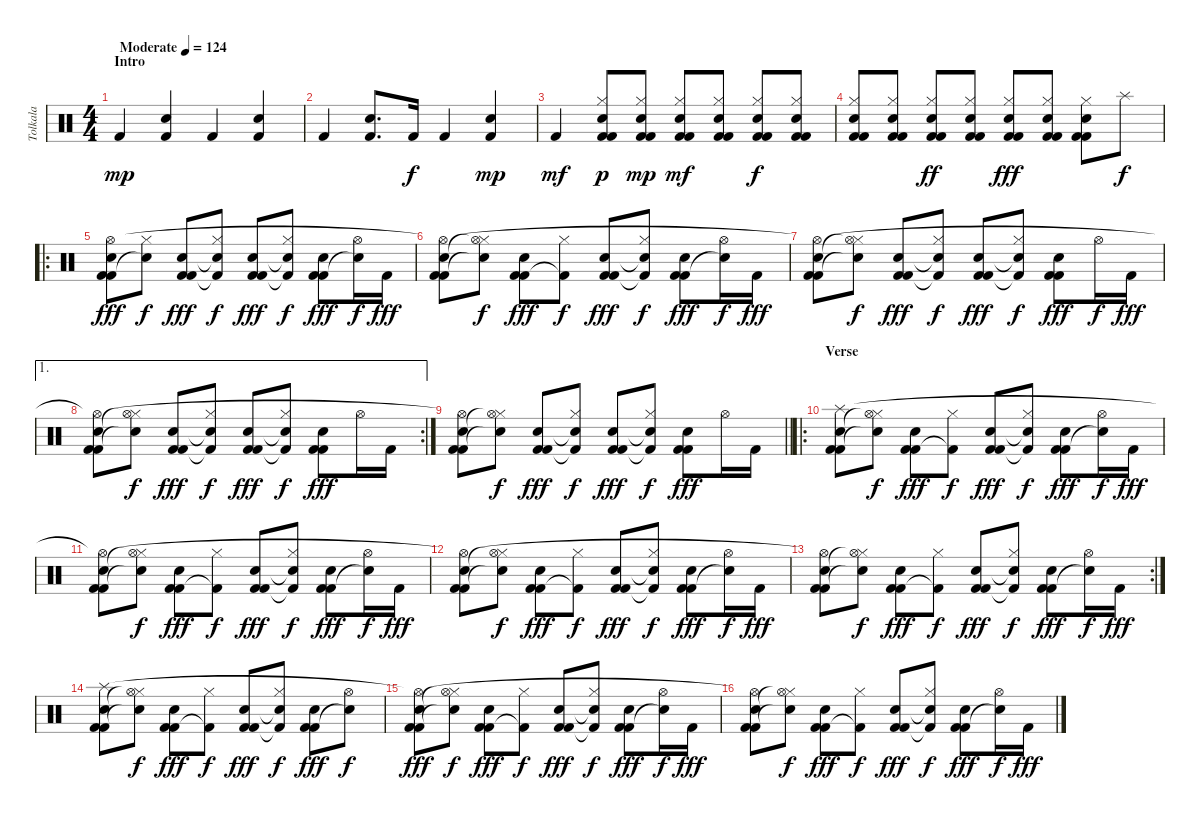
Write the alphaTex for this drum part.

\track ("Tolkala" "Tolkala") {instrument percussion}
\staff {score}
\articulation defaults
\ts (4 4)
\section ("" "Intro")
\tempo (124 "Moderate")
\clef neutral
\ks c "Kick (hit) 2".4{dy mp volume 10}
("Kick (hit) 2" "Electric Snare (hit)").4 "Kick (hit) 2".4 ("Kick (hit) 2" "Electric Snare (hit)").4 |
"Kick (hit) 2".4 ("Kick (hit) 2" "Electric Snare (hit)").8{d} "Kick (hit) 2".16{dy f} "Kick (hit) 2".4 ("Kick (hit) 2" "Electric Snare (hit)").4{dy mp} |
"Kick (hit) 2".4{dy mf} ("Kick (hit) 2" "Kick (hit) 2" "Hi-Hat (closed)" "Snare (hit) 2").8{dy p} ("Kick (hit) 2" "Kick (hit) 2" "Hi-Hat (closed)" "Snare (hit) 2").8{dy mp} ("Kick (hit) 2" "Kick (hit) 2" "Hi-Hat (closed)" "Snare (hit) 2").8{dy mf} ("Kick (hit) 2" "Kick (hit) 2" "Hi-Hat (closed)" "Snare (hit) 2").8 ("Kick (hit) 2" "Kick (hit) 2" "Hi-Hat (closed)" "Snare (hit) 2").8{dy f} ("Kick (hit) 2" "Kick (hit) 2" "Hi-Hat (closed)" "Snare (hit) 2").8 |
("Kick (hit) 2" "Kick (hit) 2" "Hi-Hat (closed)" "Snare (hit) 2").8 ("Kick (hit) 2" "Kick (hit) 2" "Hi-Hat (closed)" "Snare (hit) 2").8 ("Kick (hit) 2" "Kick (hit) 2" "Hi-Hat (closed)" "Snare (hit) 2").8{dy ff} ("Kick (hit) 2" "Kick (hit) 2" "Hi-Hat (closed)" "Snare (hit) 2").8 ("Kick (hit) 2" "Kick (hit) 2" "Hi-Hat (closed)" "Snare (hit) 2").8{dy fff} ("Kick (hit) 2" "Kick (hit) 2" "Hi-Hat (closed)" "Snare (hit) 2").8 ("Kick (hit) 2" "Kick (hit) 2" "Hi-Hat (closed)" "Snare (hit) 2").8 "Splash (hit)".8{dy f} |
\ro
("Kick (hit) 2" "Kick (hit) 2" "Snare (hit) 2" "Hi-Hat (open)").8{dy fff volume 16} ("Hi-Hat (closed)" "Snare (hit) 2"{t}).8{dy f} ("Kick (hit) 2" "Kick (hit) 2" "Snare (hit) 2").8{dy fff} ("Kick (hit) 2"{t} "Hi-Hat (closed)" "Snare (hit) 2"{t}).8{dy f} ("Kick (hit) 2" "Kick (hit) 2" "Snare (hit) 2").8{dy fff} ("Kick (hit) 2"{t} "Hi-Hat (closed)" "Snare (hit) 2"{t}).8{dy f} ("Kick (hit) 2" "Kick (hit) 2" "Snare (hit) 2").8{dy fff} ("Snare (hit) 2"{t} "Hi-Hat (open)").16{dy f} "Kick (hit) 2".16{dy fff} |
("Kick (hit) 2" "Kick (hit) 2" "Snare (hit) 2" "Hi-Hat (open)"{t}).8 ("Hi-Hat (closed)" "Snare (hit) 2"{t} "Hi-Hat (open)"{t}).8{dy f} ("Kick (hit) 2" "Kick (hit) 2" "Snare (hit) 2").8{dy fff} ("Kick (hit) 2"{t} "Hi-Hat (closed)").8{dy f} ("Kick (hit) 2" "Kick (hit) 2" "Snare (hit) 2").8{dy fff} ("Kick (hit) 2"{t} "Hi-Hat (closed)" "Snare (hit) 2"{t}).8{dy f} ("Kick (hit) 2" "Kick (hit) 2" "Snare (hit) 2").8{dy fff} ("Snare (hit) 2"{t} "Hi-Hat (open)").16{dy f} "Kick (hit) 2".16{dy fff} |
("Kick (hit) 2" "Kick (hit) 2" "Snare (hit) 2" "Hi-Hat (open)"{t}).8 ("Hi-Hat (closed)" "Snare (hit) 2"{t} "Hi-Hat (open)"{t}).8{dy f} ("Kick (hit) 2" "Kick (hit) 2" "Snare (hit) 2").8{dy fff} ("Kick (hit) 2"{t} "Hi-Hat (closed)" "Snare (hit) 2"{t}).8{dy f} ("Kick (hit) 2" "Kick (hit) 2" "Snare (hit) 2").8{dy fff} ("Kick (hit) 2"{t} "Hi-Hat (closed)" "Snare (hit) 2"{t}).8{dy f} ("Kick (hit) 2" "Kick (hit) 2" "Snare (hit) 2").8{dy fff} "Hi-Hat (open)".16{dy f} "Kick (hit) 2".16{dy fff} |
\ae 1
\rc 2
("Kick (hit) 2" "Kick (hit) 2" "Snare (hit) 2" "Hi-Hat (open)"{t}).8 ("Hi-Hat (closed)" "Snare (hit) 2"{t} "Hi-Hat (open)"{t}).8{dy f} ("Kick (hit) 2" "Kick (hit) 2" "Snare (hit) 2").8{dy fff} ("Kick (hit) 2"{t} "Hi-Hat (closed)" "Snare (hit) 2"{t}).8{dy f} ("Kick (hit) 2" "Kick (hit) 2" "Snare (hit) 2").8{dy fff} ("Kick (hit) 2"{t} "Hi-Hat (closed)" "Snare (hit) 2"{t}).8{dy f} ("Kick (hit) 2" "Kick (hit) 2" "Snare (hit) 2").8{dy fff} "Hi-Hat (open)".16 "Kick (hit) 2".16 |
\barLineRight lightlight
("Kick (hit) 2" "Kick (hit) 2" "Snare (hit) 2" "Hi-Hat (open)"{t}).8 ("Hi-Hat (closed)" "Snare (hit) 2"{t} "Hi-Hat (open)"{t}).8{dy f} ("Kick (hit) 2" "Kick (hit) 2" "Snare (hit) 2").8{dy fff} ("Kick (hit) 2"{t} "Hi-Hat (closed)" "Snare (hit) 2"{t}).8{dy f} ("Kick (hit) 2" "Kick (hit) 2" "Snare (hit) 2").8{dy fff} ("Kick (hit) 2"{t} "Hi-Hat (closed)" "Snare (hit) 2"{t}).8{dy f} ("Kick (hit) 2" "Kick (hit) 2" "Snare (hit) 2").8{dy fff} "Hi-Hat (open)".16 "Kick (hit) 2".16 |
\ro
\section ("" "Verse")
("Kick (hit) 2" "Kick (hit) 2" "Snare (hit) 2" "Splash (hit)").8 ("Hi-Hat (closed)" "Snare (hit) 2"{t} "Hi-Hat (open)"{t}).8{dy f} ("Kick (hit) 2" "Kick (hit) 2" "Snare (hit) 2").8{dy fff} ("Kick (hit) 2"{t} "Hi-Hat (closed)").8{dy f} ("Kick (hit) 2" "Kick (hit) 2" "Snare (hit) 2").8{dy fff} ("Kick (hit) 2"{t} "Hi-Hat (closed)" "Snare (hit) 2"{t}).8{dy f} ("Kick (hit) 2" "Kick (hit) 2" "Snare (hit) 2").8{dy fff} ("Snare (hit) 2"{t} "Hi-Hat (open)").16{dy f} "Kick (hit) 2".16{dy fff} |
("Kick (hit) 2" "Kick (hit) 2" "Snare (hit) 2" "Hi-Hat (open)"{t}).8 ("Hi-Hat (closed)" "Snare (hit) 2"{t} "Hi-Hat (open)"{t}).8{dy f} ("Kick (hit) 2" "Kick (hit) 2" "Snare (hit) 2").8{dy fff} ("Kick (hit) 2"{t} "Hi-Hat (closed)").8{dy f} ("Kick (hit) 2" "Kick (hit) 2" "Snare (hit) 2").8{dy fff} ("Kick (hit) 2"{t} "Hi-Hat (closed)" "Snare (hit) 2"{t}).8{dy f} ("Kick (hit) 2" "Kick (hit) 2" "Snare (hit) 2").8{dy fff} ("Snare (hit) 2"{t} "Hi-Hat (open)").16{dy f} "Kick (hit) 2".16{dy fff} |
("Kick (hit) 2" "Kick (hit) 2" "Snare (hit) 2" "Hi-Hat (open)"{t}).8 ("Hi-Hat (closed)" "Snare (hit) 2"{t} "Hi-Hat (open)"{t}).8{dy f} ("Kick (hit) 2" "Kick (hit) 2" "Snare (hit) 2").8{dy fff} ("Kick (hit) 2"{t} "Hi-Hat (closed)").8{dy f} ("Kick (hit) 2" "Kick (hit) 2" "Snare (hit) 2").8{dy fff} ("Kick (hit) 2"{t} "Hi-Hat (closed)" "Snare (hit) 2"{t}).8{dy f} ("Kick (hit) 2" "Kick (hit) 2" "Snare (hit) 2").8{dy fff} ("Snare (hit) 2"{t} "Hi-Hat (open)").16{dy f} "Kick (hit) 2".16{dy fff} |
\rc 2
("Kick (hit) 2" "Kick (hit) 2" "Snare (hit) 2" "Hi-Hat (open)"{t}).8 ("Hi-Hat (closed)" "Snare (hit) 2"{t} "Hi-Hat (open)"{t}).8{dy f} ("Kick (hit) 2" "Kick (hit) 2" "Snare (hit) 2").8{dy fff} ("Kick (hit) 2"{t} "Hi-Hat (closed)").8{dy f} ("Kick (hit) 2" "Kick (hit) 2" "Snare (hit) 2").8{dy fff} ("Kick (hit) 2"{t} "Hi-Hat (closed)" "Snare (hit) 2"{t}).8{dy f} ("Kick (hit) 2" "Kick (hit) 2" "Snare (hit) 2").8{dy fff} ("Snare (hit) 2"{t} "Hi-Hat (open)").16{dy f} "Kick (hit) 2".16{dy fff} |
("Kick (hit) 2" "Kick (hit) 2" "Snare (hit) 2" "Splash (hit)").8 ("Hi-Hat (closed)" "Snare (hit) 2"{t} "Hi-Hat (open)"{t}).8{dy f} ("Kick (hit) 2" "Kick (hit) 2" "Snare (hit) 2").8{dy fff} ("Kick (hit) 2"{t} "Hi-Hat (closed)").8{dy f} ("Kick (hit) 2" "Kick (hit) 2" "Snare (hit) 2").8{dy fff} ("Kick (hit) 2"{t} "Hi-Hat (closed)" "Snare (hit) 2"{t}).8{dy f} ("Kick (hit) 2" "Kick (hit) 2" "Snare (hit) 2").8{dy fff} ("Snare (hit) 2"{t} "Hi-Hat (open)").8{dy f} |
("Kick (hit) 2" "Kick (hit) 2" "Snare (hit) 2" "Hi-Hat (open)"{t}).8{dy fff} ("Hi-Hat (closed)" "Snare (hit) 2"{t} "Hi-Hat (open)"{t}).8{dy f} ("Kick (hit) 2" "Kick (hit) 2" "Snare (hit) 2").8{dy fff} ("Kick (hit) 2"{t} "Hi-Hat (closed)").8{dy f} ("Kick (hit) 2" "Kick (hit) 2" "Snare (hit) 2").8{dy fff} ("Kick (hit) 2"{t} "Hi-Hat (closed)" "Snare (hit) 2"{t}).8{dy f} ("Kick (hit) 2" "Kick (hit) 2" "Snare (hit) 2").8{dy fff} ("Snare (hit) 2"{t} "Hi-Hat (open)").16{dy f} "Kick (hit) 2".16{dy fff} |
("Kick (hit) 2" "Kick (hit) 2" "Snare (hit) 2" "Hi-Hat (open)"{t}).8 ("Hi-Hat (closed)" "Snare (hit) 2"{t} "Hi-Hat (open)"{t}).8{dy f} ("Kick (hit) 2" "Kick (hit) 2" "Snare (hit) 2").8{dy fff} ("Kick (hit) 2"{t} "Hi-Hat (closed)").8{dy f} ("Kick (hit) 2" "Kick (hit) 2" "Snare (hit) 2").8{dy fff} ("Kick (hit) 2"{t} "Hi-Hat (closed)" "Snare (hit) 2"{t}).8{dy f} ("Kick (hit) 2" "Kick (hit) 2" "Snare (hit) 2").8{dy fff} ("Snare (hit) 2"{t} "Hi-Hat (open)").16{dy f} "Kick (hit) 2".16{dy fff}
